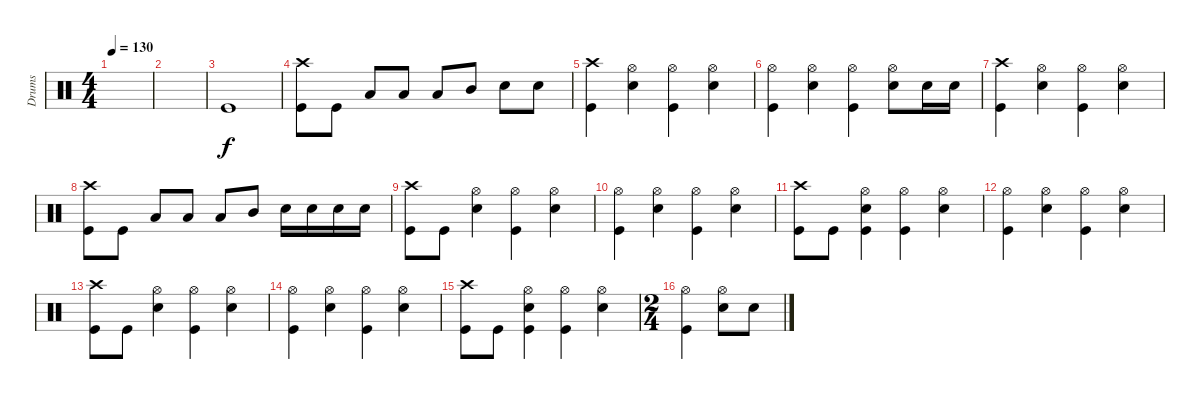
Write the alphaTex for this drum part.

\track ("Drums" "Drums") {instrument percussion}
\staff {score}
\articulation defaults
\ts (4 4)
\tempo 130
\clef neutral
\ks c
|
|
"Kick (hit)".1 |
("Crash high (hit)" "Kick (hit)").8 "Kick (hit)".8 "Low Floor Tom (hit)".8 "Low Floor Tom (hit)".8 "Low Tom (hit)".8 "Mid Tom (hit)".8 "Snare (hit) 2".8 "Snare (hit) 2".8 |
("Crash high (hit)" "Kick (hit)").4 ("Hi-Hat (open)" "Snare (hit) 2").4 ("Hi-Hat (open)" "Kick (hit)").4 ("Hi-Hat (open)" "Snare (hit) 2").4 |
("Hi-Hat (open)" "Kick (hit)").4 ("Hi-Hat (open)" "Snare (hit) 2").4 ("Hi-Hat (open)" "Kick (hit)").4 ("Hi-Hat (open)" "Snare (hit) 2").8 "Snare (hit) 2".16 "Snare (hit) 2".16 |
("Crash high (hit)" "Kick (hit)").4 ("Hi-Hat (open)" "Snare (hit) 2").4 ("Hi-Hat (open)" "Kick (hit)").4 ("Hi-Hat (open)" "Snare (hit) 2").4 |
("Crash high (hit)" "Kick (hit)").8 "Kick (hit)".8 "Low Floor Tom (hit)".8 "Low Floor Tom (hit)".8 "Low Tom (hit)".8 "Mid Tom (hit)".8 "Snare (hit) 2".16 "Snare (hit) 2".16 "Snare (hit) 2".16 "Snare (hit) 2".16 |
("Crash high (hit)" "Kick (hit)").8 "Kick (hit)".8 ("Hi-Hat (open)" "Snare (hit) 2").4 ("Hi-Hat (open)" "Kick (hit)").4 ("Hi-Hat (open)" "Snare (hit) 2").4 |
("Hi-Hat (open)" "Kick (hit)").4 ("Hi-Hat (open)" "Snare (hit) 2").4 ("Hi-Hat (open)" "Kick (hit)").4 ("Hi-Hat (open)" "Snare (hit) 2").4 |
("Crash high (hit)" "Kick (hit)").8 "Kick (hit)".8 ("Hi-Hat (open)" "Snare (hit) 2" "Kick (hit)").4 ("Hi-Hat (open)" "Kick (hit)").4 ("Hi-Hat (open)" "Snare (hit) 2").4 |
("Hi-Hat (open)" "Kick (hit)").4 ("Hi-Hat (open)" "Snare (hit) 2").4 ("Hi-Hat (open)" "Kick (hit)").4 ("Hi-Hat (open)" "Snare (hit) 2").4 |
("Crash high (hit)" "Kick (hit)").8 "Kick (hit)".8 ("Hi-Hat (open)" "Snare (hit) 2").4 ("Hi-Hat (open)" "Kick (hit)").4 ("Hi-Hat (open)" "Snare (hit) 2").4 |
("Hi-Hat (open)" "Kick (hit)").4 ("Hi-Hat (open)" "Snare (hit) 2").4 ("Hi-Hat (open)" "Kick (hit)").4 ("Hi-Hat (open)" "Snare (hit) 2").4 |
("Crash high (hit)" "Kick (hit)").8 "Kick (hit)".8 ("Hi-Hat (open)" "Snare (hit) 2" "Kick (hit)").4 ("Hi-Hat (open)" "Kick (hit)").4 ("Hi-Hat (open)" "Snare (hit) 2").4 |
\ts (2 4)
("Hi-Hat (open)" "Kick (hit)").4 ("Hi-Hat (open)" "Snare (hit) 2").8 "Snare (hit) 2".8
